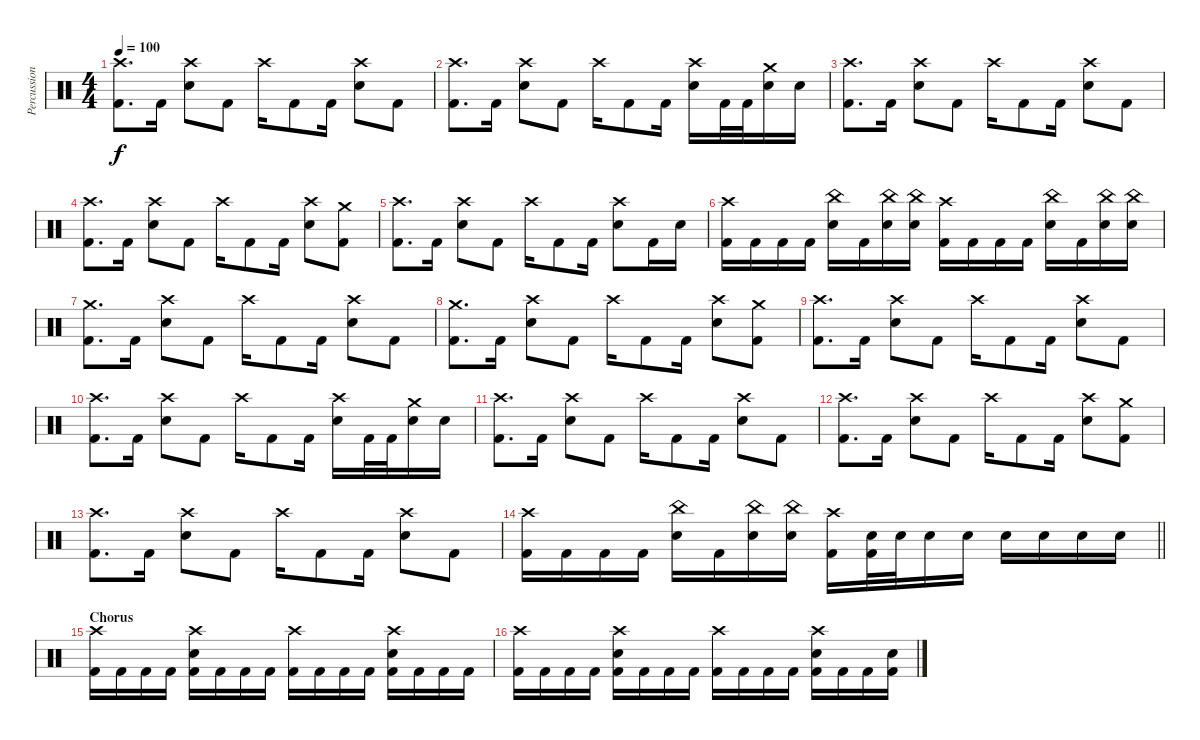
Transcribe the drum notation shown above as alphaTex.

\track ("Percussion" "Percussion") {instrument percussion}
\staff {score}
\articulation defaults
\ts (4 4)
\tempo 100
\clef neutral
\ks c
("Crash high (hit)" "Kick (hit) 2").8{d dy f} "Kick (hit) 2".16 ("Crash high (hit)" "Electric Snare (hit)").8 "Kick (hit) 2".8 "Crash high (hit)".16 "Kick (hit) 2".8 "Kick (hit) 2".16 ("Crash high (hit)" "Electric Snare (hit)").8 "Kick (hit) 2".8 |
("Crash high (hit)" "Kick (hit) 2").8{d} "Kick (hit) 2".16 ("Crash high (hit)" "Electric Snare (hit)").8 "Kick (hit) 2".8 "Crash high (hit)".16 "Kick (hit) 2".8 "Kick (hit) 2".16 ("Crash high (hit)" "Electric Snare (hit)").16 "Kick (hit) 2".32 "Kick (hit) 2".32 ("Crash medium (hit)" "Electric Snare (hit)").16 "Electric Snare (hit)".16 |
("Crash high (hit)" "Kick (hit) 2").8{d} "Kick (hit) 2".16 ("Crash high (hit)" "Electric Snare (hit)").8 "Kick (hit) 2".8 "Crash high (hit)".16 "Kick (hit) 2".8 "Kick (hit) 2".16 ("Crash high (hit)" "Electric Snare (hit)").8 "Kick (hit) 2".8 |
("Crash high (hit)" "Kick (hit) 2").8{d} "Kick (hit) 2".16 ("Crash high (hit)" "Electric Snare (hit)").8 "Kick (hit) 2".8 "Crash high (hit)".16 "Kick (hit) 2".8 "Kick (hit) 2".16 ("Crash high (hit)" "Electric Snare (hit)").8 ("Crash medium (hit)" "Kick (hit) 2").8 |
("Crash high (hit)" "Kick (hit) 2").8{d} "Kick (hit) 2".16 ("Crash high (hit)" "Electric Snare (hit)").8 "Kick (hit) 2".8 "Crash high (hit)".16 "Kick (hit) 2".8 "Kick (hit) 2".16 ("Crash high (hit)" "Electric Snare (hit)").8 "Kick (hit) 2".16 "Electric Snare (hit)".16 |
("Crash high (hit)" "Kick (hit) 2").16 "Kick (hit) 2".16 "Kick (hit) 2".16 "Kick (hit) 2".16 ("China (hit)" "Electric Snare (hit)").16 "Kick (hit) 2".16 ("China (hit)" "Electric Snare (hit)").16 ("China (hit)" "Electric Snare (hit)").16 ("Crash high (hit)" "Kick (hit) 2").16 "Kick (hit) 2".16 "Kick (hit) 2".16 "Kick (hit) 2".16 ("China (hit)" "Electric Snare (hit)").16 "Kick (hit) 2".16 ("China (hit)" "Electric Snare (hit)").16 ("China (hit)" "Electric Snare (hit)").16 |
("Crash medium (hit)" "Kick (hit) 2").8{d} "Kick (hit) 2".16 ("Crash high (hit)" "Electric Snare (hit)").8 "Kick (hit) 2".8 "Crash high (hit)".16 "Kick (hit) 2".8 "Kick (hit) 2".16 ("Crash high (hit)" "Electric Snare (hit)").8 "Kick (hit) 2".8 |
("Crash medium (hit)" "Kick (hit) 2").8{d} "Kick (hit) 2".16 ("Crash high (hit)" "Electric Snare (hit)").8 "Kick (hit) 2".8 "Crash high (hit)".16 "Kick (hit) 2".8 "Kick (hit) 2".16 ("Crash high (hit)" "Electric Snare (hit)").8 ("Crash medium (hit)" "Kick (hit) 2").8 |
("Crash high (hit)" "Kick (hit) 2").8{d} "Kick (hit) 2".16 ("Crash high (hit)" "Electric Snare (hit)").8 "Kick (hit) 2".8 "Crash high (hit)".16 "Kick (hit) 2".8 "Kick (hit) 2".16 ("Crash high (hit)" "Electric Snare (hit)").8 "Kick (hit) 2".8 |
("Crash high (hit)" "Kick (hit) 2").8{d} "Kick (hit) 2".16 ("Crash high (hit)" "Electric Snare (hit)").8 "Kick (hit) 2".8 "Crash high (hit)".16 "Kick (hit) 2".8 "Kick (hit) 2".16 ("Crash high (hit)" "Electric Snare (hit)").16 "Kick (hit) 2".32 "Kick (hit) 2".32 ("Crash medium (hit)" "Electric Snare (hit)").16 "Electric Snare (hit)".16 |
("Crash high (hit)" "Kick (hit) 2").8{d} "Kick (hit) 2".16 ("Crash high (hit)" "Electric Snare (hit)").8 "Kick (hit) 2".8 "Crash high (hit)".16 "Kick (hit) 2".8 "Kick (hit) 2".16 ("Crash high (hit)" "Electric Snare (hit)").8 "Kick (hit) 2".8 |
("Crash high (hit)" "Kick (hit) 2").8{d} "Kick (hit) 2".16 ("Crash high (hit)" "Electric Snare (hit)").8 "Kick (hit) 2".8 "Crash high (hit)".16 "Kick (hit) 2".8 "Kick (hit) 2".16 ("Crash high (hit)" "Electric Snare (hit)").8 ("Crash medium (hit)" "Kick (hit) 2").8 |
("Crash high (hit)" "Kick (hit) 2").8{d} "Kick (hit) 2".16 ("Crash high (hit)" "Electric Snare (hit)").8 "Kick (hit) 2".8 "Crash high (hit)".16 "Kick (hit) 2".8 "Kick (hit) 2".16 ("Crash high (hit)" "Electric Snare (hit)").8 "Kick (hit) 2".8 |
\barLineRight lightlight
("Crash high (hit)" "Kick (hit) 2").16 "Kick (hit) 2".16 "Kick (hit) 2".16 "Kick (hit) 2".16 ("China (hit)" "Electric Snare (hit)").16 "Kick (hit) 2".16 ("China (hit)" "Electric Snare (hit)").16 ("China (hit)" "Electric Snare (hit)").16 ("Crash high (hit)" "Kick (hit) 2").16 ("Electric Snare (hit)" "Kick (hit) 2").32 "Electric Snare (hit)".32 "Electric Snare (hit)".16 "Electric Snare (hit)".16 "Electric Snare (hit)".16 "Electric Snare (hit)".16 "Electric Snare (hit)".16 "Electric Snare (hit)".16 |
\section ("" "Chorus")
("Crash high (hit)" "Kick (hit) 2").16 "Kick (hit) 2".16 "Kick (hit) 2".16 "Kick (hit) 2".16 ("Crash high (hit)" "Electric Snare (hit)" "Kick (hit) 2").16 "Kick (hit) 2".16 "Kick (hit) 2".16 "Kick (hit) 2".16 ("Crash high (hit)" "Kick (hit) 2").16 "Kick (hit) 2".16 "Kick (hit) 2".16 "Kick (hit) 2".16 ("Crash high (hit)" "Electric Snare (hit)" "Kick (hit) 2").16 "Kick (hit) 2".16 "Kick (hit) 2".16 "Kick (hit) 2".16 |
("Crash high (hit)" "Kick (hit) 2").16 "Kick (hit) 2".16 "Kick (hit) 2".16 "Kick (hit) 2".16 ("Crash high (hit)" "Electric Snare (hit)" "Kick (hit) 2").16 "Kick (hit) 2".16 "Kick (hit) 2".16 "Kick (hit) 2".16 ("Crash high (hit)" "Kick (hit) 2").16 "Kick (hit) 2".16 "Kick (hit) 2".16 "Kick (hit) 2".16 ("Crash high (hit)" "Electric Snare (hit)" "Kick (hit) 2").16 "Kick (hit) 2".16 "Kick (hit) 2".16 ("Electric Snare (hit)" "Kick (hit) 2").16
